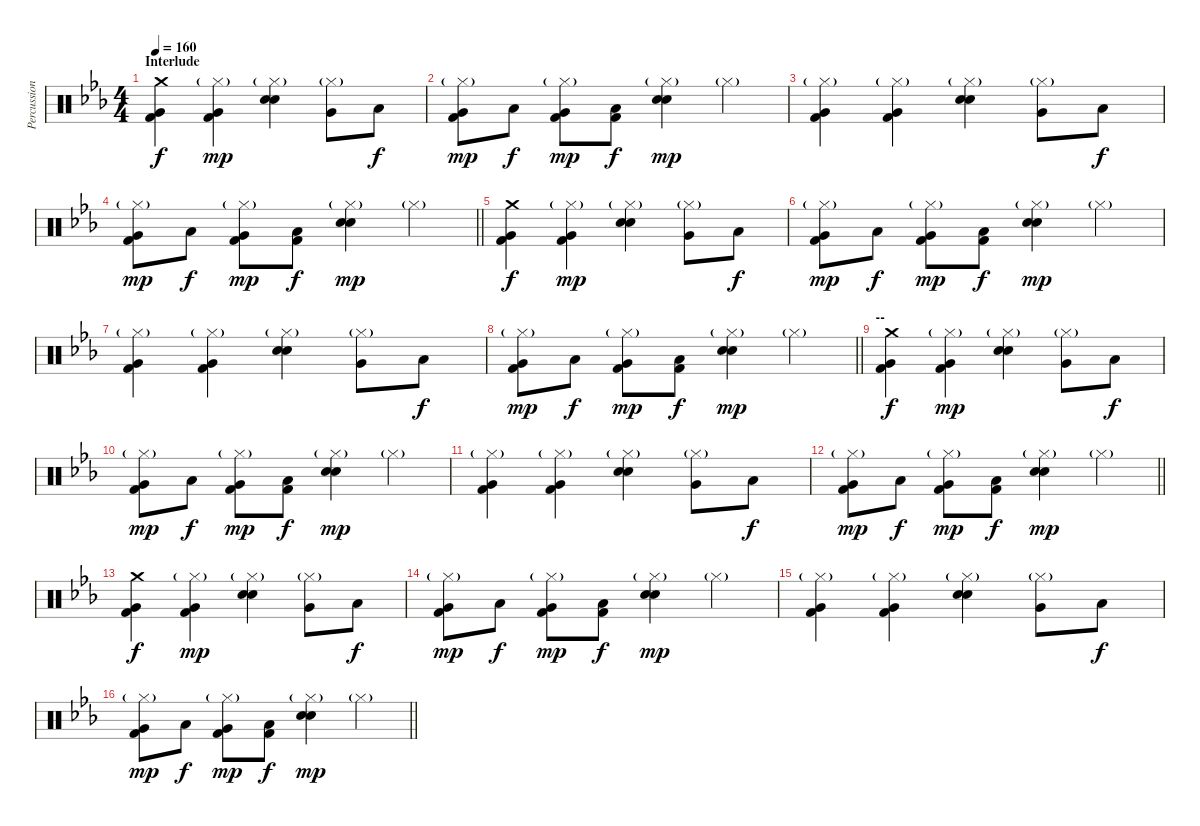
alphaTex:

\track ("Percussion" "Percussion") {instrument percussion}
\staff {score}
\articulation defaults
\ts (4 4)
\section ("" "Interlude")
\tempo 160
\clef neutral
\ks eb
("Crash medium (hit)" "Very Low Tom (hit)" "Kick (hit) 2").4{dy f} ("Hi-Hat (closed)"{g} "Very Low Tom (hit)" "Kick (hit) 2").4{dy mp} ("Hi-Hat (closed)"{g} "Snare (hit) 2" "Electric Snare (hit)").4 ("Hi-Hat (closed)"{g} "Very Low Tom (hit)").8 "Low Floor Tom (hit)".8{dy f} |
("Hi-Hat (closed)"{g} "Very Low Tom (hit)" "Kick (hit) 2").8{dy mp} "Low Floor Tom (hit)".8{dy f} ("Hi-Hat (closed)"{g} "Very Low Tom (hit)" "Kick (hit) 2").8{dy mp} ("Low Floor Tom (hit)" "Kick (hit) 2").8{dy f} ("Hi-Hat (closed)"{g} "Snare (hit) 2" "Electric Snare (hit)").4{dy mp} "Hi-Hat (closed)"{g}.4 |
("Hi-Hat (closed)"{g} "Very Low Tom (hit)" "Kick (hit) 2").4 ("Hi-Hat (closed)"{g} "Very Low Tom (hit)" "Kick (hit) 2").4 ("Hi-Hat (closed)"{g} "Snare (hit) 2" "Electric Snare (hit)").4 ("Hi-Hat (closed)"{g} "Very Low Tom (hit)").8 "Low Floor Tom (hit)".8{dy f} |
\barLineRight lightlight
("Hi-Hat (closed)"{g} "Very Low Tom (hit)" "Kick (hit) 2").8{dy mp} "Low Floor Tom (hit)".8{dy f} ("Hi-Hat (closed)"{g} "Very Low Tom (hit)" "Kick (hit) 2").8{dy mp} ("Low Floor Tom (hit)" "Kick (hit) 2").8{dy f} ("Hi-Hat (closed)"{g} "Snare (hit) 2" "Electric Snare (hit)").4{dy mp} "Hi-Hat (closed)"{g}.4 |
\section ("" "")
("Crash medium (hit)" "Very Low Tom (hit)" "Kick (hit) 2").4{dy f} ("Hi-Hat (closed)"{g} "Very Low Tom (hit)" "Kick (hit) 2").4{dy mp} ("Hi-Hat (closed)"{g} "Snare (hit) 2" "Electric Snare (hit)").4 ("Hi-Hat (closed)"{g} "Very Low Tom (hit)").8 "Low Floor Tom (hit)".8{dy f} |
("Hi-Hat (closed)"{g} "Very Low Tom (hit)" "Kick (hit) 2").8{dy mp} "Low Floor Tom (hit)".8{dy f} ("Hi-Hat (closed)"{g} "Very Low Tom (hit)" "Kick (hit) 2").8{dy mp} ("Low Floor Tom (hit)" "Kick (hit) 2").8{dy f} ("Hi-Hat (closed)"{g} "Snare (hit) 2" "Electric Snare (hit)").4{dy mp} "Hi-Hat (closed)"{g}.4 |
("Hi-Hat (closed)"{g} "Very Low Tom (hit)" "Kick (hit) 2").4 ("Hi-Hat (closed)"{g} "Very Low Tom (hit)" "Kick (hit) 2").4 ("Hi-Hat (closed)"{g} "Snare (hit) 2" "Electric Snare (hit)").4 ("Hi-Hat (closed)"{g} "Very Low Tom (hit)").8 "Low Floor Tom (hit)".8{dy f} |
\barLineRight lightlight
("Hi-Hat (closed)"{g} "Very Low Tom (hit)" "Kick (hit) 2").8{dy mp} "Low Floor Tom (hit)".8{dy f} ("Hi-Hat (closed)"{g} "Very Low Tom (hit)" "Kick (hit) 2").8{dy mp} ("Low Floor Tom (hit)" "Kick (hit) 2").8{dy f} ("Hi-Hat (closed)"{g} "Snare (hit) 2" "Electric Snare (hit)").4{dy mp} "Hi-Hat (closed)"{g}.4 |
\section ("" "--")
("Crash medium (hit)" "Very Low Tom (hit)" "Kick (hit) 2").4{dy f} ("Hi-Hat (closed)"{g} "Very Low Tom (hit)" "Kick (hit) 2").4{dy mp} ("Hi-Hat (closed)"{g} "Snare (hit) 2" "Electric Snare (hit)").4 ("Hi-Hat (closed)"{g} "Very Low Tom (hit)").8 "Low Floor Tom (hit)".8{dy f} |
("Hi-Hat (closed)"{g} "Very Low Tom (hit)" "Kick (hit) 2").8{dy mp} "Low Floor Tom (hit)".8{dy f} ("Hi-Hat (closed)"{g} "Very Low Tom (hit)" "Kick (hit) 2").8{dy mp} ("Low Floor Tom (hit)" "Kick (hit) 2").8{dy f} ("Hi-Hat (closed)"{g} "Snare (hit) 2" "Electric Snare (hit)").4{dy mp} "Hi-Hat (closed)"{g}.4 |
("Hi-Hat (closed)"{g} "Very Low Tom (hit)" "Kick (hit) 2").4 ("Hi-Hat (closed)"{g} "Very Low Tom (hit)" "Kick (hit) 2").4 ("Hi-Hat (closed)"{g} "Snare (hit) 2" "Electric Snare (hit)").4 ("Hi-Hat (closed)"{g} "Very Low Tom (hit)").8 "Low Floor Tom (hit)".8{dy f} |
\barLineRight lightlight
("Hi-Hat (closed)"{g} "Very Low Tom (hit)" "Kick (hit) 2").8{dy mp} "Low Floor Tom (hit)".8{dy f} ("Hi-Hat (closed)"{g} "Very Low Tom (hit)" "Kick (hit) 2").8{dy mp} ("Low Floor Tom (hit)" "Kick (hit) 2").8{dy f} ("Hi-Hat (closed)"{g} "Snare (hit) 2" "Electric Snare (hit)").4{dy mp} "Hi-Hat (closed)"{g}.4 |
\section ("" "")
("Crash medium (hit)" "Very Low Tom (hit)" "Kick (hit) 2").4{dy f} ("Hi-Hat (closed)"{g} "Very Low Tom (hit)" "Kick (hit) 2").4{dy mp} ("Hi-Hat (closed)"{g} "Snare (hit) 2" "Electric Snare (hit)").4 ("Hi-Hat (closed)"{g} "Very Low Tom (hit)").8 "Low Floor Tom (hit)".8{dy f} |
("Hi-Hat (closed)"{g} "Very Low Tom (hit)" "Kick (hit) 2").8{dy mp} "Low Floor Tom (hit)".8{dy f} ("Hi-Hat (closed)"{g} "Very Low Tom (hit)" "Kick (hit) 2").8{dy mp} ("Low Floor Tom (hit)" "Kick (hit) 2").8{dy f} ("Hi-Hat (closed)"{g} "Snare (hit) 2" "Electric Snare (hit)").4{dy mp} "Hi-Hat (closed)"{g}.4 |
("Hi-Hat (closed)"{g} "Very Low Tom (hit)" "Kick (hit) 2").4 ("Hi-Hat (closed)"{g} "Very Low Tom (hit)" "Kick (hit) 2").4 ("Hi-Hat (closed)"{g} "Snare (hit) 2" "Electric Snare (hit)").4 ("Hi-Hat (closed)"{g} "Very Low Tom (hit)").8 "Low Floor Tom (hit)".8{dy f} |
\barLineRight lightlight
("Hi-Hat (closed)"{g} "Very Low Tom (hit)" "Kick (hit) 2").8{dy mp} "Low Floor Tom (hit)".8{dy f} ("Hi-Hat (closed)"{g} "Very Low Tom (hit)" "Kick (hit) 2").8{dy mp} ("Low Floor Tom (hit)" "Kick (hit) 2").8{dy f} ("Hi-Hat (closed)"{g} "Snare (hit) 2" "Electric Snare (hit)").4{dy mp} "Hi-Hat (closed)"{g}.4
